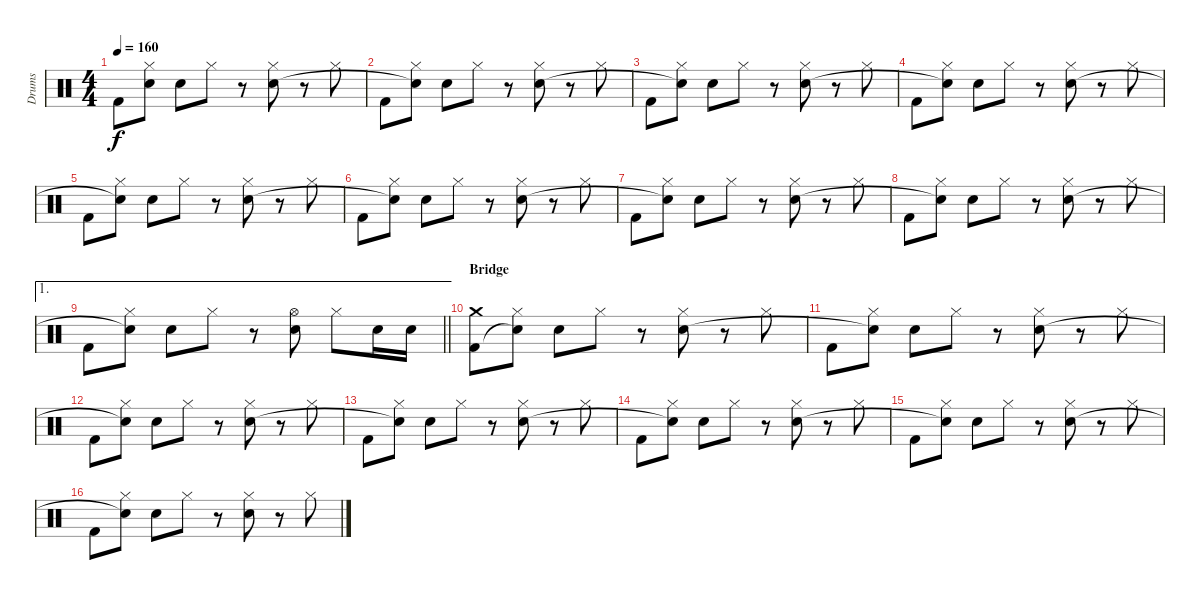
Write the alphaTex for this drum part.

\track ("Drums" "Drums") {instrument percussion}
\staff {score}
\articulation defaults
\ts (4 4)
\tempo 160
\clef neutral
\ks c "Kick (hit) 2".8{dy f}
("Hi-Hat (closed)" "Snare (hit)"{t}).8 "Electric Snare (hit)".8 "Hi-Hat (closed)".8 r.8 ("Hi-Hat (closed)" "Electric Snare (hit)").8 r.8 "Hi-Hat (closed)".8 |
"Kick (hit) 2".8 ("Hi-Hat (closed)" "Snare (hit)"{t}).8 "Electric Snare (hit)".8 "Hi-Hat (closed)".8 r.8 ("Hi-Hat (closed)" "Electric Snare (hit)").8 r.8 "Hi-Hat (closed)".8 |
"Kick (hit) 2".8 ("Hi-Hat (closed)" "Snare (hit)"{t}).8 "Electric Snare (hit)".8 "Hi-Hat (closed)".8 r.8 ("Hi-Hat (closed)" "Electric Snare (hit)").8 r.8 "Hi-Hat (closed)".8 |
"Kick (hit) 2".8 ("Hi-Hat (closed)" "Snare (hit)"{t}).8 "Electric Snare (hit)".8 "Hi-Hat (closed)".8 r.8 ("Hi-Hat (closed)" "Electric Snare (hit)").8 r.8 "Hi-Hat (closed)".8 |
"Kick (hit) 2".8 ("Hi-Hat (closed)" "Snare (hit)"{t}).8 "Electric Snare (hit)".8 "Hi-Hat (closed)".8 r.8 ("Hi-Hat (closed)" "Electric Snare (hit)").8 r.8 "Hi-Hat (closed)".8 |
"Kick (hit) 2".8 ("Hi-Hat (closed)" "Snare (hit)"{t}).8 "Electric Snare (hit)".8 "Hi-Hat (closed)".8 r.8 ("Hi-Hat (closed)" "Electric Snare (hit)").8 r.8 "Hi-Hat (closed)".8 |
"Kick (hit) 2".8 ("Hi-Hat (closed)" "Snare (hit)"{t}).8 "Electric Snare (hit)".8 "Hi-Hat (closed)".8 r.8 ("Hi-Hat (closed)" "Electric Snare (hit)").8 r.8 "Hi-Hat (closed)".8 |
"Kick (hit) 2".8 ("Hi-Hat (closed)" "Snare (hit)"{t}).8 "Electric Snare (hit)".8 "Hi-Hat (closed)".8 r.8 ("Hi-Hat (closed)" "Electric Snare (hit)").8 r.8 "Hi-Hat (closed)".8 |
\ae 1
\barLineRight lightlight "Kick (hit) 2".8
("Hi-Hat (closed)" "Snare (hit)"{t}).8 "Electric Snare (hit)".8 "Hi-Hat (closed)".8 r.8 ("Hi-Hat (open)" "Electric Snare (hit)").8 "Hi-Hat (closed)".8 "Electric Snare (hit)".16 "Electric Snare (hit)".16 |
\section ("" "Bridge")
("Crash medium (hit)" "Kick (hit) 2").8 ("Hi-Hat (closed)" "Snare (hit)"{t}).8 "Electric Snare (hit)".8 "Hi-Hat (closed)".8 r.8 ("Hi-Hat (closed)" "Electric Snare (hit)").8 r.8 "Hi-Hat (closed)".8 |
"Kick (hit) 2".8 ("Hi-Hat (closed)" "Snare (hit)"{t}).8 "Electric Snare (hit)".8 "Hi-Hat (closed)".8 r.8 ("Hi-Hat (closed)" "Electric Snare (hit)").8 r.8 "Hi-Hat (closed)".8 |
"Kick (hit) 2".8 ("Hi-Hat (closed)" "Snare (hit)"{t}).8 "Electric Snare (hit)".8 "Hi-Hat (closed)".8 r.8 ("Hi-Hat (closed)" "Electric Snare (hit)").8 r.8 "Hi-Hat (closed)".8 |
"Kick (hit) 2".8 ("Hi-Hat (closed)" "Snare (hit)"{t}).8 "Electric Snare (hit)".8 "Hi-Hat (closed)".8 r.8 ("Hi-Hat (closed)" "Electric Snare (hit)").8 r.8 "Hi-Hat (closed)".8 |
"Kick (hit) 2".8 ("Hi-Hat (closed)" "Snare (hit)"{t}).8 "Electric Snare (hit)".8 "Hi-Hat (closed)".8 r.8 ("Hi-Hat (closed)" "Electric Snare (hit)").8 r.8 "Hi-Hat (closed)".8 |
"Kick (hit) 2".8 ("Hi-Hat (closed)" "Snare (hit)"{t}).8 "Electric Snare (hit)".8 "Hi-Hat (closed)".8 r.8 ("Hi-Hat (closed)" "Electric Snare (hit)").8 r.8 "Hi-Hat (closed)".8 |
"Kick (hit) 2".8 ("Hi-Hat (closed)" "Snare (hit)"{t}).8 "Electric Snare (hit)".8 "Hi-Hat (closed)".8 r.8 ("Hi-Hat (closed)" "Electric Snare (hit)").8 r.8 "Hi-Hat (closed)".8
